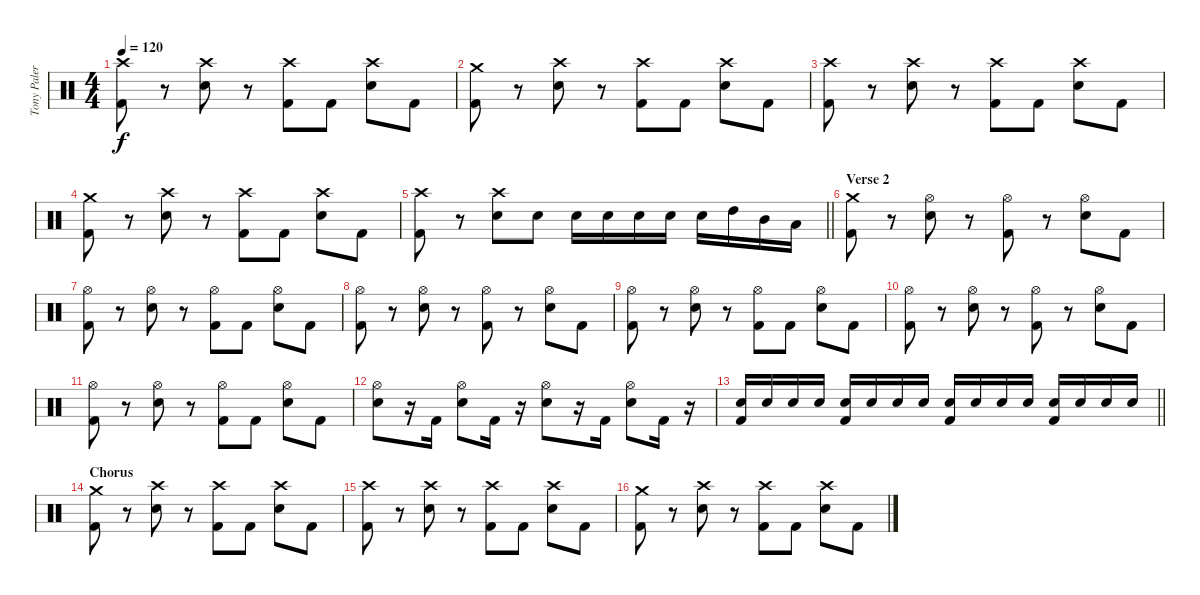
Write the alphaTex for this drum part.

\track ("Tony Palermo " "Tony Paler") {instrument percussion}
\staff {score}
\articulation defaults
\ts (4 4)
\tempo 120
\clef neutral
\ks c
("Crash high (hit)" "Kick (hit) 2").8{dy f} r.8 ("Crash high (hit)" "Snare (hit) 2").8 r.8 ("Crash high (hit)" "Kick (hit) 2").8 "Kick (hit) 2".8 ("Crash high (hit)" "Snare (hit) 2").8 "Kick (hit) 2".8 |
("Crash medium (hit)" "Kick (hit) 2").8 r.8 ("Crash high (hit)" "Snare (hit) 2").8 r.8 ("Crash high (hit)" "Kick (hit) 2").8 "Kick (hit) 2".8 ("Crash high (hit)" "Snare (hit) 2").8 "Kick (hit) 2".8 |
("Crash high (hit)" "Kick (hit) 2").8 r.8 ("Crash high (hit)" "Snare (hit) 2").8 r.8 ("Crash high (hit)" "Kick (hit) 2").8 "Kick (hit) 2".8 ("Crash high (hit)" "Snare (hit) 2").8 "Kick (hit) 2".8 |
("Crash medium (hit)" "Kick (hit) 2").8 r.8 ("Crash high (hit)" "Snare (hit) 2").8 r.8 ("Crash high (hit)" "Kick (hit) 2").8 "Kick (hit) 2".8 ("Crash high (hit)" "Snare (hit) 2").8 "Kick (hit) 2".8 |
\barLineRight lightlight
("Crash high (hit)" "Kick (hit) 2").8 r.8 ("Crash high (hit)" "Snare (hit) 2").8 "Snare (hit) 2".8 "Snare (hit) 2".16 "Snare (hit) 2".16 "Snare (hit) 2".16 "Snare (hit) 2".16 "Snare (hit) 2".16 "High Tom (hit)".16 "Mid Tom (hit)".16 "Low Tom (hit)".16 |
\section ("" "Verse 2")
("Crash medium (hit)" "Kick (hit) 2").8 r.8 ("Hi-Hat (open)" "Snare (hit) 2").8 r.8 ("Hi-Hat (open)" "Kick (hit) 2").8 r.8 ("Hi-Hat (open)" "Snare (hit) 2").8 "Kick (hit) 2".8 |
("Hi-Hat (open)" "Kick (hit) 2").8 r.8 ("Hi-Hat (open)" "Snare (hit) 2").8 r.8 ("Hi-Hat (open)" "Kick (hit) 2").8 "Kick (hit) 2".8 ("Hi-Hat (open)" "Snare (hit) 2").8 "Kick (hit) 2".8 |
("Hi-Hat (open)" "Kick (hit) 2").8 r.8 ("Hi-Hat (open)" "Snare (hit) 2").8 r.8 ("Hi-Hat (open)" "Kick (hit) 2").8 r.8 ("Hi-Hat (open)" "Snare (hit) 2").8 "Kick (hit) 2".8 |
("Hi-Hat (open)" "Kick (hit) 2").8 r.8 ("Hi-Hat (open)" "Snare (hit) 2").8 r.8 ("Hi-Hat (open)" "Kick (hit) 2").8 "Kick (hit) 2".8 ("Hi-Hat (open)" "Snare (hit) 2").8 "Kick (hit) 2".8 |
("Hi-Hat (open)" "Kick (hit) 2").8 r.8 ("Hi-Hat (open)" "Snare (hit) 2").8 r.8 ("Hi-Hat (open)" "Kick (hit) 2").8 r.8 ("Hi-Hat (open)" "Snare (hit) 2").8 "Kick (hit) 2".8 |
("Hi-Hat (open)" "Kick (hit) 2").8 r.8 ("Hi-Hat (open)" "Snare (hit) 2").8 r.8 ("Hi-Hat (open)" "Kick (hit) 2").8 "Kick (hit) 2".8 ("Hi-Hat (open)" "Snare (hit) 2").8 "Kick (hit) 2".8 |
("Hi-Hat (open)" "Snare (hit) 2").8 r.16 "Kick (hit) 2".16 ("Hi-Hat (open)" "Snare (hit) 2").8 "Kick (hit) 2".16 r.16 ("Hi-Hat (open)" "Snare (hit) 2").8 r.16 "Kick (hit) 2".16 ("Hi-Hat (open)" "Snare (hit) 2").8 "Kick (hit) 2".16 r.16 |
\barLineRight lightlight
("Kick (hit) 2" "Snare (hit) 2").16 "Snare (hit) 2".16 "Snare (hit) 2".16 "Snare (hit) 2".16 ("Kick (hit) 2" "Snare (hit) 2").16 "Snare (hit) 2".16 "Snare (hit) 2".16 "Snare (hit) 2".16 ("Kick (hit) 2" "Snare (hit) 2").16 "Snare (hit) 2".16 "Snare (hit) 2".16 "Snare (hit) 2".16 ("Kick (hit) 2" "Snare (hit) 2").16 "Snare (hit) 2".16 "Snare (hit) 2".16 "Snare (hit) 2".16 |
\section ("" "Chorus")
("Crash medium (hit)" "Kick (hit) 2").8 r.8 ("Crash high (hit)" "Snare (hit) 2").8 r.8 ("Crash high (hit)" "Kick (hit) 2").8 "Kick (hit) 2".8 ("Crash high (hit)" "Snare (hit) 2").8 "Kick (hit) 2".8 |
("Crash high (hit)" "Kick (hit) 2").8 r.8 ("Crash high (hit)" "Snare (hit) 2").8 r.8 ("Crash high (hit)" "Kick (hit) 2").8 "Kick (hit) 2".8 ("Crash high (hit)" "Snare (hit) 2").8 "Kick (hit) 2".8 |
("Crash medium (hit)" "Kick (hit) 2").8 r.8 ("Crash high (hit)" "Snare (hit) 2").8 r.8 ("Crash high (hit)" "Kick (hit) 2").8 "Kick (hit) 2".8 ("Crash high (hit)" "Snare (hit) 2").8 "Kick (hit) 2".8
